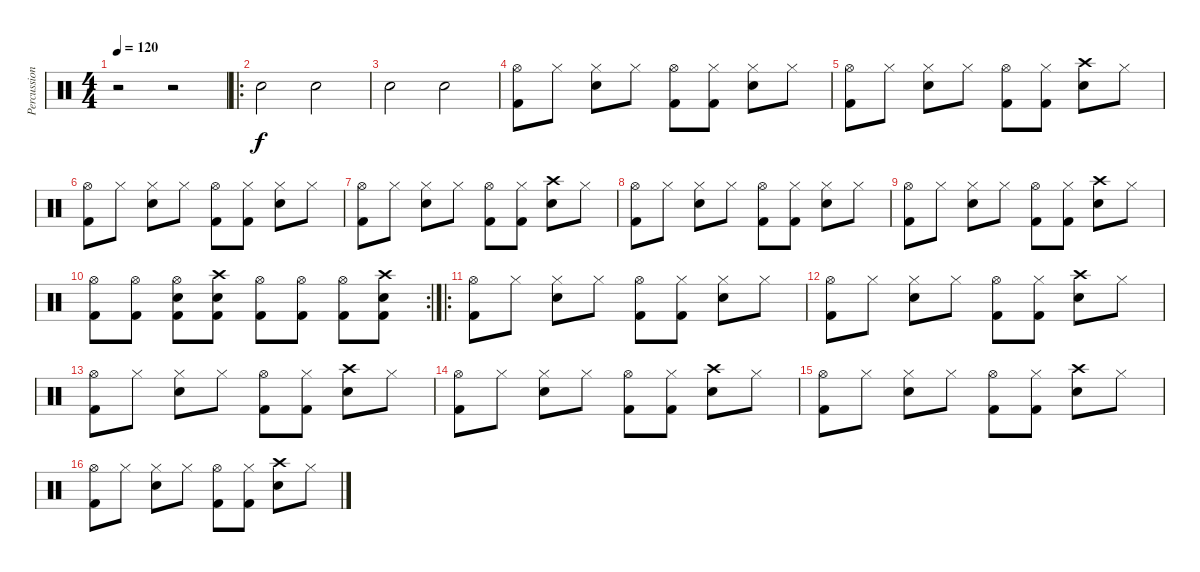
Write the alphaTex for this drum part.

\track ("Percussion" "Percussion") {instrument percussion}
\staff {score}
\articulation defaults
\ts (4 4)
\tempo 120
\clef neutral
\ks c
r.2{dy f} r.2 |
\ro "Electric Snare (hit)".2 "Electric Snare (hit)".2
|
"Electric Snare (hit)".2 "Electric Snare (hit)".2 |
("Hi-Hat (open)" "Kick (hit) 2").8 "Hi-Hat (closed)".8 ("Hi-Hat (closed)" "Electric Snare (hit)").8 "Hi-Hat (closed)".8 ("Hi-Hat (open)" "Kick (hit) 2").8 ("Hi-Hat (closed)" "Kick (hit) 2").8 ("Hi-Hat (closed)" "Electric Snare (hit)").8 "Hi-Hat (closed)".8 |
("Hi-Hat (open)" "Kick (hit) 2").8 "Hi-Hat (closed)".8 ("Hi-Hat (closed)" "Electric Snare (hit)").8 "Hi-Hat (closed)".8 ("Hi-Hat (open)" "Kick (hit) 2").8 ("Hi-Hat (closed)" "Kick (hit) 2").8 ("Crash high (hit)" "Electric Snare (hit)").8 "Hi-Hat (closed)".8 |
("Hi-Hat (open)" "Kick (hit) 2").8 "Hi-Hat (closed)".8 ("Hi-Hat (closed)" "Electric Snare (hit)").8 "Hi-Hat (closed)".8 ("Hi-Hat (open)" "Kick (hit) 2").8 ("Hi-Hat (closed)" "Kick (hit) 2").8 ("Hi-Hat (closed)" "Electric Snare (hit)").8 "Hi-Hat (closed)".8 |
("Hi-Hat (open)" "Kick (hit) 2").8 "Hi-Hat (closed)".8 ("Hi-Hat (closed)" "Electric Snare (hit)").8 "Hi-Hat (closed)".8 ("Hi-Hat (open)" "Kick (hit) 2").8 ("Hi-Hat (closed)" "Kick (hit) 2").8 ("Crash high (hit)" "Electric Snare (hit)").8 "Hi-Hat (closed)".8 |
("Hi-Hat (open)" "Kick (hit) 2").8 "Hi-Hat (closed)".8 ("Hi-Hat (closed)" "Electric Snare (hit)").8 "Hi-Hat (closed)".8 ("Hi-Hat (open)" "Kick (hit) 2").8 ("Hi-Hat (closed)" "Kick (hit) 2").8 ("Hi-Hat (closed)" "Electric Snare (hit)").8 "Hi-Hat (closed)".8 |
("Hi-Hat (open)" "Kick (hit) 2").8 "Hi-Hat (closed)".8 ("Hi-Hat (closed)" "Electric Snare (hit)").8 "Hi-Hat (closed)".8 ("Hi-Hat (open)" "Kick (hit) 2").8 ("Hi-Hat (closed)" "Kick (hit) 2").8 ("Crash high (hit)" "Electric Snare (hit)").8 "Hi-Hat (closed)".8 |
\rc 2
("Hi-Hat (open)" "Kick (hit) 2").8 ("Hi-Hat (open)" "Kick (hit) 2").8 ("Hi-Hat (open)" "Electric Snare (hit)" "Kick (hit) 2").8 ("Crash high (hit)" "Electric Snare (hit)" "Kick (hit) 2").8 ("Hi-Hat (open)" "Kick (hit) 2").8 ("Hi-Hat (open)" "Kick (hit) 2").8 ("Hi-Hat (open)" "Kick (hit) 2").8 ("Crash high (hit)" "Electric Snare (hit)" "Kick (hit) 2").8 |
\ro
("Hi-Hat (open)" "Kick (hit) 2").8 "Hi-Hat (closed)".8 ("Hi-Hat (closed)" "Electric Snare (hit)").8 "Hi-Hat (closed)".8 ("Hi-Hat (open)" "Kick (hit) 2").8 ("Hi-Hat (closed)" "Kick (hit) 2").8 ("Hi-Hat (closed)" "Electric Snare (hit)").8 "Hi-Hat (closed)".8 |
("Hi-Hat (open)" "Kick (hit) 2").8 "Hi-Hat (closed)".8 ("Hi-Hat (closed)" "Electric Snare (hit)").8 "Hi-Hat (closed)".8 ("Hi-Hat (open)" "Kick (hit) 2").8 ("Hi-Hat (closed)" "Kick (hit) 2").8 ("Crash high (hit)" "Electric Snare (hit)").8 "Hi-Hat (closed)".8 |
("Hi-Hat (open)" "Kick (hit) 2").8 "Hi-Hat (closed)".8 ("Hi-Hat (closed)" "Electric Snare (hit)").8 "Hi-Hat (closed)".8 ("Hi-Hat (open)" "Kick (hit) 2").8 ("Hi-Hat (closed)" "Kick (hit) 2").8 ("Crash high (hit)" "Electric Snare (hit)").8 "Hi-Hat (closed)".8 |
("Hi-Hat (open)" "Kick (hit) 2").8 "Hi-Hat (closed)".8 ("Hi-Hat (closed)" "Electric Snare (hit)").8 "Hi-Hat (closed)".8 ("Hi-Hat (open)" "Kick (hit) 2").8 ("Hi-Hat (closed)" "Kick (hit) 2").8 ("Crash high (hit)" "Electric Snare (hit)").8 "Hi-Hat (closed)".8 |
("Hi-Hat (open)" "Kick (hit) 2").8 "Hi-Hat (closed)".8 ("Hi-Hat (closed)" "Electric Snare (hit)").8 "Hi-Hat (closed)".8 ("Hi-Hat (open)" "Kick (hit) 2").8 ("Hi-Hat (closed)" "Kick (hit) 2").8 ("Crash high (hit)" "Electric Snare (hit)").8 "Hi-Hat (closed)".8 |
("Hi-Hat (open)" "Kick (hit) 2").8 "Hi-Hat (closed)".8 ("Hi-Hat (closed)" "Electric Snare (hit)").8 "Hi-Hat (closed)".8 ("Hi-Hat (open)" "Kick (hit) 2").8 ("Hi-Hat (closed)" "Kick (hit) 2").8 ("Crash high (hit)" "Electric Snare (hit)").8 "Hi-Hat (closed)".8
